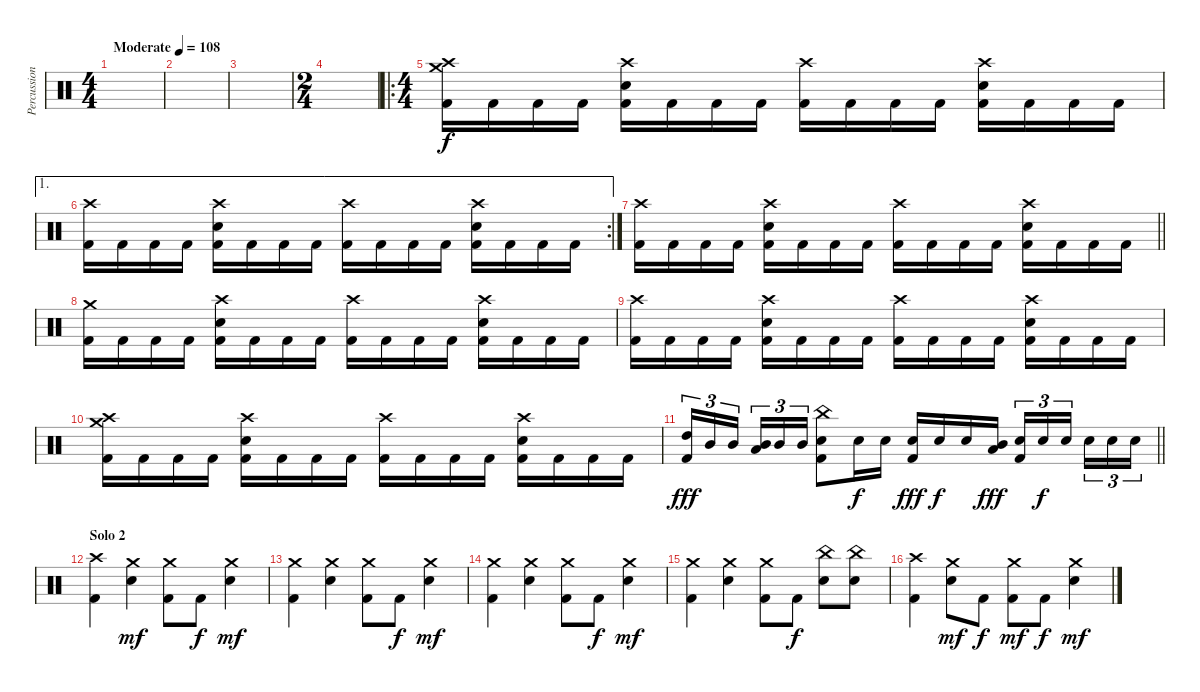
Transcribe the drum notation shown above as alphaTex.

\track ("Percussions" "Percussion") {instrument percussion}
\staff {score}
\articulation defaults
\ts (4 4)
\tempo (108 "Moderate")
\clef neutral
\ks c
|
|
|
\ts (2 4)
|
\ro
\ts (4 4)
("Crash high (hit)" "Crash medium (hit)" "Kick (hit) 2").16 "Kick (hit) 2".16 "Kick (hit) 2".16 "Kick (hit) 2".16 ("Crash high (hit)" "Electric Snare (hit)" "Kick (hit) 2").16 "Kick (hit) 2".16 "Kick (hit) 2".16 "Kick (hit) 2".16 ("Crash high (hit)" "Kick (hit) 2").16 "Kick (hit) 2".16 "Kick (hit) 2".16 "Kick (hit) 2".16 ("Crash high (hit)" "Electric Snare (hit)" "Kick (hit) 2").16 "Kick (hit) 2".16 "Kick (hit) 2".16 "Kick (hit) 2".16 |
\ae 1
\rc 2
("Crash high (hit)" "Kick (hit) 2").16 "Kick (hit) 2".16 "Kick (hit) 2".16 "Kick (hit) 2".16 ("Crash high (hit)" "Electric Snare (hit)" "Kick (hit) 2").16 "Kick (hit) 2".16 "Kick (hit) 2".16 "Kick (hit) 2".16 ("Crash high (hit)" "Kick (hit) 2").16 "Kick (hit) 2".16 "Kick (hit) 2".16 "Kick (hit) 2".16 ("Crash high (hit)" "Electric Snare (hit)" "Kick (hit) 2").16 "Kick (hit) 2".16 "Kick (hit) 2".16 "Kick (hit) 2".16 |
\barLineRight lightlight
("Crash high (hit)" "Kick (hit) 2").16 "Kick (hit) 2".16 "Kick (hit) 2".16 "Kick (hit) 2".16 ("Crash high (hit)" "Electric Snare (hit)" "Kick (hit) 2").16 "Kick (hit) 2".16 "Kick (hit) 2".16 "Kick (hit) 2".16 ("Crash high (hit)" "Kick (hit) 2").16 "Kick (hit) 2".16 "Kick (hit) 2".16 "Kick (hit) 2".16 ("Crash high (hit)" "Electric Snare (hit)" "Kick (hit) 2").16 "Kick (hit) 2".16 "Kick (hit) 2".16 "Kick (hit) 2".16 |
\section ("" "")
("Crash medium (hit)" "Kick (hit) 2").16 "Kick (hit) 2".16 "Kick (hit) 2".16 "Kick (hit) 2".16 ("Crash high (hit)" "Electric Snare (hit)" "Kick (hit) 2").16 "Kick (hit) 2".16 "Kick (hit) 2".16 "Kick (hit) 2".16 ("Crash high (hit)" "Kick (hit) 2").16 "Kick (hit) 2".16 "Kick (hit) 2".16 "Kick (hit) 2".16 ("Crash high (hit)" "Electric Snare (hit)" "Kick (hit) 2").16 "Kick (hit) 2".16 "Kick (hit) 2".16 "Kick (hit) 2".16 |
("Crash high (hit)" "Kick (hit) 2").16 "Kick (hit) 2".16 "Kick (hit) 2".16 "Kick (hit) 2".16 ("Crash high (hit)" "Electric Snare (hit)" "Kick (hit) 2").16 "Kick (hit) 2".16 "Kick (hit) 2".16 "Kick (hit) 2".16 ("Crash high (hit)" "Kick (hit) 2").16 "Kick (hit) 2".16 "Kick (hit) 2".16 "Kick (hit) 2".16 ("Crash high (hit)" "Electric Snare (hit)" "Kick (hit) 2").16 "Kick (hit) 2".16 "Kick (hit) 2".16 "Kick (hit) 2".16 |
("Crash high (hit)" "Crash medium (hit)" "Kick (hit) 2").16 "Kick (hit) 2".16 "Kick (hit) 2".16 "Kick (hit) 2".16 ("Crash high (hit)" "Electric Snare (hit)" "Kick (hit) 2").16 "Kick (hit) 2".16 "Kick (hit) 2".16 "Kick (hit) 2".16 ("Crash high (hit)" "Kick (hit) 2").16 "Kick (hit) 2".16 "Kick (hit) 2".16 "Kick (hit) 2".16 ("Crash high (hit)" "Electric Snare (hit)" "Kick (hit) 2").16 "Kick (hit) 2".16 "Kick (hit) 2".16 "Kick (hit) 2".16 |
\barLineRight lightlight
("High Tom (hit)" "Kick (hit) 2").16{tu (3 2) dy fff} "Mid Tom (hit)".16{tu (3 2)} "Mid Tom (hit)".16{tu (3 2) beam splitsecondary} ("Low Tom (hit)" "Mid Tom (hit)").16{tu (3 2)} "Mid Tom (hit)".16{tu (3 2)} "Mid Tom (hit)".16{tu (3 2)} ("China (hit)" "Electric Snare (hit)" "Kick (hit) 2").8 "Electric Snare (hit)".16{dy f} "Electric Snare (hit)".16 ("Electric Snare (hit)" "Kick (hit) 2").16{dy fff} "Electric Snare (hit)".16{dy f} "Electric Snare (hit)".16 ("Mid Tom (hit)" "Low Tom (hit)").16{dy fff} ("Electric Snare (hit)" "Kick (hit) 2").16{tu (3 2)} "Electric Snare (hit)".16{tu (3 2) dy f} "Electric Snare (hit)".16{tu (3 2) beam splitsecondary} "Electric Snare (hit)".16{tu (3 2)} "Electric Snare (hit)".16{tu (3 2)} "Electric Snare (hit)".16{tu (3 2)} |
\section ("" "Solo 2")
("Crash high (hit)" "Kick (hit) 2").4 ("Crash medium (hit)" "Electric Snare (hit)").4{dy mf} ("Crash medium (hit)" "Kick (hit) 2").8 "Kick (hit) 2".8{dy f} ("Crash medium (hit)" "Electric Snare (hit)").4{dy mf} |
("Crash medium (hit)" "Kick (hit) 2").4 ("Crash medium (hit)" "Electric Snare (hit)").4 ("Crash medium (hit)" "Kick (hit) 2").8 "Kick (hit) 2".8{dy f} ("Crash medium (hit)" "Electric Snare (hit)").4{dy mf} |
("Crash medium (hit)" "Kick (hit) 2").4 ("Crash medium (hit)" "Electric Snare (hit)").4 ("Crash medium (hit)" "Kick (hit) 2").8 "Kick (hit) 2".8{dy f} ("Crash medium (hit)" "Electric Snare (hit)").4{dy mf} |
("Crash medium (hit)" "Kick (hit) 2").4 ("Crash medium (hit)" "Electric Snare (hit)").4 ("Crash medium (hit)" "Kick (hit) 2").8 "Kick (hit) 2".8{dy f} ("China (hit)" "Electric Snare (hit)").8 ("China (hit)" "Electric Snare (hit)").8 |
("Crash high (hit)" "Kick (hit) 2").4 ("Crash medium (hit)" "Electric Snare (hit)").8{dy mf} "Kick (hit) 2".8{dy f} ("Crash medium (hit)" "Kick (hit) 2").8{dy mf} "Kick (hit) 2".8{dy f} ("Crash medium (hit)" "Electric Snare (hit)").4{dy mf}
